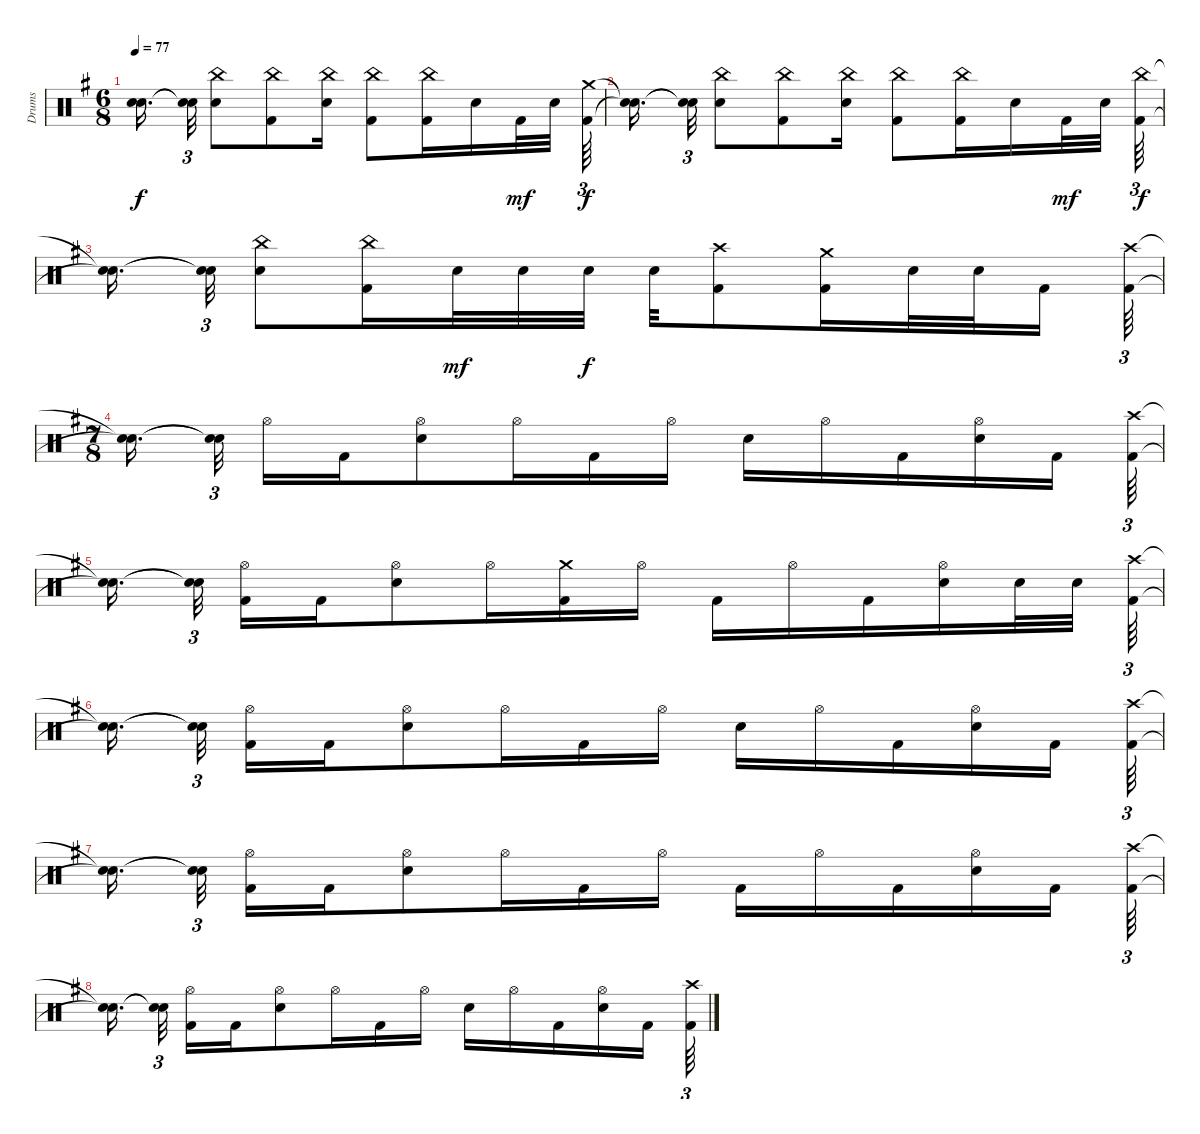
\track ("Drums" "Drums") {instrument percussion}
\staff {score}
\articulation defaults
\ts (6 8)
\tempo 77
\clef neutral
\ks g
("Snare (hit)"{t} "Snare (hit)"{t}).16{d dy f beam splitsecondary} ("Snare (hit)"{t} "Snare (hit)"{t}).32{tu (3 2)} ("Electric Snare (hit)" "China (hit)").8 ("China (hit)" "Kick (hit) 2").8 ("Electric Snare (hit)" "China (hit)").16 ("Kick (hit) 2" "China (hit)").8 ("Kick (hit) 2" "China (hit)").16 "Electric Snare (hit)".16 "Kick (hit) 2".32{dy mf} "Electric Snare (hit)".32{beam splitsecondary} ("Kick (hit) 2" "Crash medium (hit)").64{tu (3 2) dy f} |
("Snare (hit)"{t} "Snare (hit)"{t}).16{d beam splitsecondary} ("Snare (hit)"{t} "Snare (hit)"{t}).32{tu (3 2)} ("Electric Snare (hit)" "China (hit)").8 ("China (hit)" "Kick (hit) 2").8 ("Electric Snare (hit)" "China (hit)").16 ("Kick (hit) 2" "China (hit)").8 ("Kick (hit) 2" "China (hit)").16 "Electric Snare (hit)".16 "Kick (hit) 2".32{dy mf} "Electric Snare (hit)".32{beam splitsecondary} ("Kick (hit) 2" "China (hit)").64{tu (3 2) dy f} |
("Snare (hit)"{t} "Snare (hit)"{t}).16{d beam splitsecondary} ("Snare (hit)"{t} "Snare (hit)"{t}).32{tu (3 2)} ("Electric Snare (hit)" "China (hit)").8 ("Kick (hit) 2" "China (hit)").16 "Electric Snare (hit)".32{dy mf} "Electric Snare (hit)".32 "Electric Snare (hit)".32{dy f} "Electric Snare (hit)".32 ("Kick (hit) 2" "Crash high (hit)").8 ("Kick (hit) 2" "Crash medium (hit)").16 "Electric Snare (hit)".32 "Electric Snare (hit)".32 "Kick (hit) 2".16{beam splitsecondary} ("Crash high (hit)" "Kick (hit) 2").64{tu (3 2)} |
\ts (7 8)
("Snare (hit)"{t} "Snare (hit)"{t}).16{d beam splitsecondary} ("Snare (hit)"{t} "Snare (hit)"{t}).32{tu (3 2)} "Hi-Hat (open)".16 "Kick (hit) 2".16 ("Hi-Hat (open)" "Electric Snare (hit)").8 "Hi-Hat (open)".16 "Kick (hit) 2".16 "Hi-Hat (open)".16 "Electric Snare (hit)".16 "Hi-Hat (open)".16 "Kick (hit) 2".16 ("Hi-Hat (open)" "Electric Snare (hit)").16 "Kick (hit) 2".16 ("Kick (hit) 2" "Crash high (hit)").64{tu (3 2)} |
("Snare (hit)"{t} "Snare (hit)"{t}).16{d beam splitsecondary} ("Snare (hit)"{t} "Snare (hit)"{t}).32{tu (3 2)} ("Hi-Hat (open)" "Kick (hit) 2").16 "Kick (hit) 2".16 ("Hi-Hat (open)" "Electric Snare (hit)").8 "Hi-Hat (open)".16 ("Kick (hit) 2" "Crash medium (hit)").16 "Hi-Hat (open)".16 "Kick (hit) 2".16 "Hi-Hat (open)".16 "Kick (hit) 2".16 ("Hi-Hat (open)" "Electric Snare (hit)").16 "Electric Snare (hit)".32 "Electric Snare (hit)".32{beam splitsecondary} ("Kick (hit) 2" "Crash high (hit)").64{tu (3 2)} |
("Snare (hit)"{t} "Snare (hit)"{t}).16{d beam splitsecondary} ("Snare (hit)"{t} "Snare (hit)"{t}).32{tu (3 2)} ("Kick (hit) 2" "Hi-Hat (open)").16 "Kick (hit) 2".16 ("Hi-Hat (open)" "Electric Snare (hit)").8 "Hi-Hat (open)".16 "Kick (hit) 2".16 "Hi-Hat (open)".16 "Electric Snare (hit)".16 "Hi-Hat (open)".16 "Kick (hit) 2".16 ("Hi-Hat (open)" "Electric Snare (hit)").16 "Kick (hit) 2".16 ("Crash high (hit)" "Kick (hit) 2").64{tu (3 2)} |
("Snare (hit)"{t} "Snare (hit)"{t}).16{d beam splitsecondary} ("Snare (hit)"{t} "Snare (hit)"{t}).32{tu (3 2)} ("Hi-Hat (open)" "Kick (hit) 2").16 "Kick (hit) 2".16 ("Hi-Hat (open)" "Electric Snare (hit)").8 "Hi-Hat (open)".16 "Kick (hit) 2".16 "Hi-Hat (open)".16 "Kick (hit) 2".16 "Hi-Hat (open)".16 "Kick (hit) 2".16 ("Hi-Hat (open)" "Electric Snare (hit)").16 "Kick (hit) 2".16 ("Kick (hit) 2" "Crash high (hit)").64{tu (3 2)} |
("Snare (hit)"{t} "Snare (hit)"{t}).16{d beam splitsecondary} ("Snare (hit)"{t} "Snare (hit)"{t}).32{tu (3 2)} ("Hi-Hat (open)" "Kick (hit) 2").16 "Kick (hit) 2".16 ("Hi-Hat (open)" "Electric Snare (hit)").8 "Hi-Hat (open)".16 "Kick (hit) 2".16 "Hi-Hat (open)".16 "Electric Snare (hit)".16 "Hi-Hat (open)".16 "Kick (hit) 2".16 ("Hi-Hat (open)" "Electric Snare (hit)").16 "Kick (hit) 2".16 ("Kick (hit) 2" "Crash high (hit)").64{tu (3 2)}
